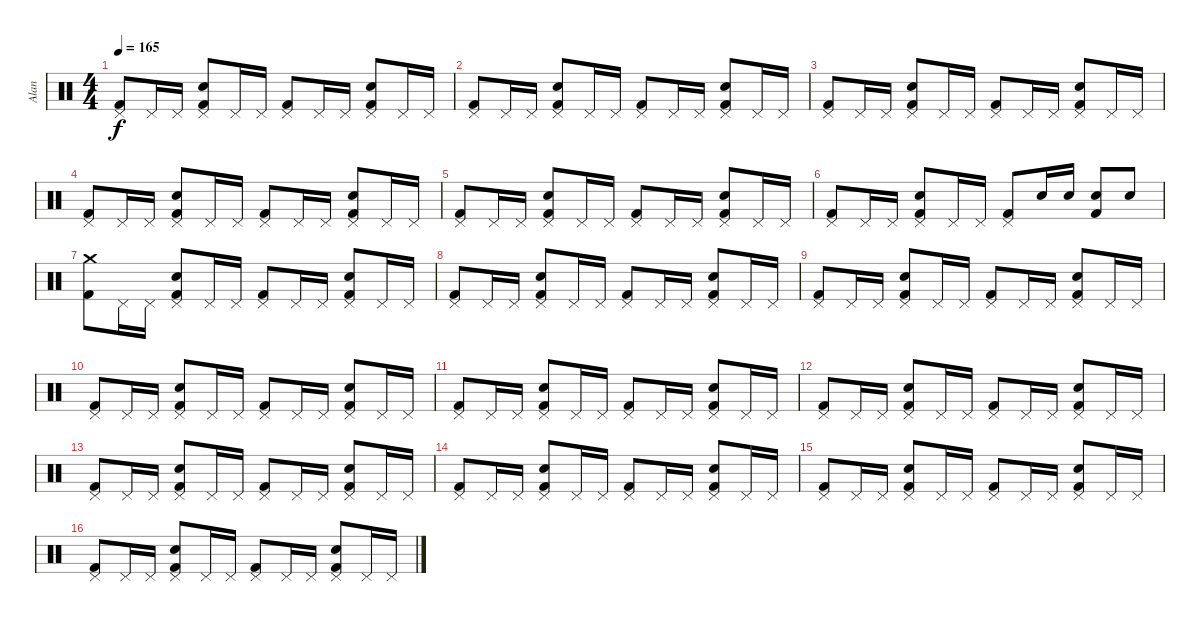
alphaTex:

\track ("Alan" "Alan") {instrument percussion}
\staff {score}
\articulation defaults
\ts (4 4)
\tempo 165
\clef neutral
\ks c
("Kick (hit) 2" "Pedal Hi-Hat (hit)").8{dy f} "Pedal Hi-Hat (hit)".16 "Pedal Hi-Hat (hit)".16 ("Pedal Hi-Hat (hit)" "Kick (hit) 2" "Snare (hit) 2").8 "Pedal Hi-Hat (hit)".16 "Pedal Hi-Hat (hit)".16 ("Pedal Hi-Hat (hit)" "Kick (hit) 2").8 "Pedal Hi-Hat (hit)".16 "Pedal Hi-Hat (hit)".16 ("Pedal Hi-Hat (hit)" "Kick (hit) 2" "Snare (hit) 2").8 "Pedal Hi-Hat (hit)".16 "Pedal Hi-Hat (hit)".16 |
("Kick (hit) 2" "Pedal Hi-Hat (hit)").8 "Pedal Hi-Hat (hit)".16 "Pedal Hi-Hat (hit)".16 ("Pedal Hi-Hat (hit)" "Kick (hit) 2" "Snare (hit) 2").8 "Pedal Hi-Hat (hit)".16 "Pedal Hi-Hat (hit)".16 ("Pedal Hi-Hat (hit)" "Kick (hit) 2").8 "Pedal Hi-Hat (hit)".16 "Pedal Hi-Hat (hit)".16 ("Pedal Hi-Hat (hit)" "Kick (hit) 2" "Snare (hit) 2").8 "Pedal Hi-Hat (hit)".16 "Pedal Hi-Hat (hit)".16 |
("Kick (hit) 2" "Pedal Hi-Hat (hit)").8 "Pedal Hi-Hat (hit)".16 "Pedal Hi-Hat (hit)".16 ("Pedal Hi-Hat (hit)" "Kick (hit) 2" "Snare (hit) 2").8 "Pedal Hi-Hat (hit)".16 "Pedal Hi-Hat (hit)".16 ("Pedal Hi-Hat (hit)" "Kick (hit) 2").8 "Pedal Hi-Hat (hit)".16 "Pedal Hi-Hat (hit)".16 ("Pedal Hi-Hat (hit)" "Kick (hit) 2" "Snare (hit) 2").8 "Pedal Hi-Hat (hit)".16 "Pedal Hi-Hat (hit)".16 |
("Kick (hit) 2" "Pedal Hi-Hat (hit)").8 "Pedal Hi-Hat (hit)".16 "Pedal Hi-Hat (hit)".16 ("Pedal Hi-Hat (hit)" "Kick (hit) 2" "Snare (hit) 2").8 "Pedal Hi-Hat (hit)".16 "Pedal Hi-Hat (hit)".16 ("Pedal Hi-Hat (hit)" "Kick (hit) 2").8 "Pedal Hi-Hat (hit)".16 "Pedal Hi-Hat (hit)".16 ("Pedal Hi-Hat (hit)" "Kick (hit) 2" "Snare (hit) 2").8 "Pedal Hi-Hat (hit)".16 "Pedal Hi-Hat (hit)".16 |
("Kick (hit) 2" "Pedal Hi-Hat (hit)").8 "Pedal Hi-Hat (hit)".16 "Pedal Hi-Hat (hit)".16 ("Pedal Hi-Hat (hit)" "Kick (hit) 2" "Snare (hit) 2").8 "Pedal Hi-Hat (hit)".16 "Pedal Hi-Hat (hit)".16 ("Pedal Hi-Hat (hit)" "Kick (hit) 2").8 "Pedal Hi-Hat (hit)".16 "Pedal Hi-Hat (hit)".16 ("Pedal Hi-Hat (hit)" "Kick (hit) 2" "Snare (hit) 2").8 "Pedal Hi-Hat (hit)".16 "Pedal Hi-Hat (hit)".16 |
("Kick (hit) 2" "Pedal Hi-Hat (hit)").8 "Pedal Hi-Hat (hit)".16 "Pedal Hi-Hat (hit)".16 ("Pedal Hi-Hat (hit)" "Kick (hit) 2" "Snare (hit) 2").8 "Pedal Hi-Hat (hit)".16 "Pedal Hi-Hat (hit)".16 ("Pedal Hi-Hat (hit)" "Kick (hit) 2").8 "Snare (hit) 2".16 "Snare (hit) 2".16 ("Snare (hit) 2" "Kick (hit) 2").8 "Snare (hit) 2".8 |
("Kick (hit) 2" "Crash medium (hit)").8 "Pedal Hi-Hat (hit)".16 "Pedal Hi-Hat (hit)".16 ("Pedal Hi-Hat (hit)" "Kick (hit) 2" "Snare (hit) 2").8 "Pedal Hi-Hat (hit)".16 "Pedal Hi-Hat (hit)".16 ("Pedal Hi-Hat (hit)" "Kick (hit) 2").8 "Pedal Hi-Hat (hit)".16 "Pedal Hi-Hat (hit)".16 ("Pedal Hi-Hat (hit)" "Kick (hit) 2" "Snare (hit) 2").8 "Pedal Hi-Hat (hit)".16 "Pedal Hi-Hat (hit)".16 |
("Kick (hit) 2" "Pedal Hi-Hat (hit)").8 "Pedal Hi-Hat (hit)".16 "Pedal Hi-Hat (hit)".16 ("Pedal Hi-Hat (hit)" "Kick (hit) 2" "Snare (hit) 2").8 "Pedal Hi-Hat (hit)".16 "Pedal Hi-Hat (hit)".16 ("Pedal Hi-Hat (hit)" "Kick (hit) 2").8 "Pedal Hi-Hat (hit)".16 "Pedal Hi-Hat (hit)".16 ("Pedal Hi-Hat (hit)" "Kick (hit) 2" "Snare (hit) 2").8 "Pedal Hi-Hat (hit)".16 "Pedal Hi-Hat (hit)".16 |
("Kick (hit) 2" "Pedal Hi-Hat (hit)").8 "Pedal Hi-Hat (hit)".16 "Pedal Hi-Hat (hit)".16 ("Pedal Hi-Hat (hit)" "Kick (hit) 2" "Snare (hit) 2").8 "Pedal Hi-Hat (hit)".16 "Pedal Hi-Hat (hit)".16 ("Pedal Hi-Hat (hit)" "Kick (hit) 2").8 "Pedal Hi-Hat (hit)".16 "Pedal Hi-Hat (hit)".16 ("Pedal Hi-Hat (hit)" "Kick (hit) 2" "Snare (hit) 2").8 "Pedal Hi-Hat (hit)".16 "Pedal Hi-Hat (hit)".16 |
("Kick (hit) 2" "Pedal Hi-Hat (hit)").8 "Pedal Hi-Hat (hit)".16 "Pedal Hi-Hat (hit)".16 ("Pedal Hi-Hat (hit)" "Kick (hit) 2" "Snare (hit) 2").8 "Pedal Hi-Hat (hit)".16 "Pedal Hi-Hat (hit)".16 ("Pedal Hi-Hat (hit)" "Kick (hit) 2").8 "Pedal Hi-Hat (hit)".16 "Pedal Hi-Hat (hit)".16 ("Pedal Hi-Hat (hit)" "Kick (hit) 2" "Snare (hit) 2").8 "Pedal Hi-Hat (hit)".16 "Pedal Hi-Hat (hit)".16 |
("Kick (hit) 2" "Pedal Hi-Hat (hit)").8 "Pedal Hi-Hat (hit)".16 "Pedal Hi-Hat (hit)".16 ("Pedal Hi-Hat (hit)" "Kick (hit) 2" "Snare (hit) 2").8 "Pedal Hi-Hat (hit)".16 "Pedal Hi-Hat (hit)".16 ("Pedal Hi-Hat (hit)" "Kick (hit) 2").8 "Pedal Hi-Hat (hit)".16 "Pedal Hi-Hat (hit)".16 ("Pedal Hi-Hat (hit)" "Kick (hit) 2" "Snare (hit) 2").8 "Pedal Hi-Hat (hit)".16 "Pedal Hi-Hat (hit)".16 |
("Kick (hit) 2" "Pedal Hi-Hat (hit)").8 "Pedal Hi-Hat (hit)".16 "Pedal Hi-Hat (hit)".16 ("Pedal Hi-Hat (hit)" "Kick (hit) 2" "Snare (hit) 2").8 "Pedal Hi-Hat (hit)".16 "Pedal Hi-Hat (hit)".16 ("Pedal Hi-Hat (hit)" "Kick (hit) 2").8 "Pedal Hi-Hat (hit)".16 "Pedal Hi-Hat (hit)".16 ("Pedal Hi-Hat (hit)" "Kick (hit) 2" "Snare (hit) 2").8 "Pedal Hi-Hat (hit)".16 "Pedal Hi-Hat (hit)".16 |
("Kick (hit) 2" "Pedal Hi-Hat (hit)").8 "Pedal Hi-Hat (hit)".16 "Pedal Hi-Hat (hit)".16 ("Pedal Hi-Hat (hit)" "Kick (hit) 2" "Snare (hit) 2").8 "Pedal Hi-Hat (hit)".16 "Pedal Hi-Hat (hit)".16 ("Pedal Hi-Hat (hit)" "Kick (hit) 2").8 "Pedal Hi-Hat (hit)".16 "Pedal Hi-Hat (hit)".16 ("Pedal Hi-Hat (hit)" "Kick (hit) 2" "Snare (hit) 2").8 "Pedal Hi-Hat (hit)".16 "Pedal Hi-Hat (hit)".16 |
("Kick (hit) 2" "Pedal Hi-Hat (hit)").8 "Pedal Hi-Hat (hit)".16 "Pedal Hi-Hat (hit)".16 ("Pedal Hi-Hat (hit)" "Kick (hit) 2" "Snare (hit) 2").8 "Pedal Hi-Hat (hit)".16 "Pedal Hi-Hat (hit)".16 ("Pedal Hi-Hat (hit)" "Kick (hit) 2").8 "Pedal Hi-Hat (hit)".16 "Pedal Hi-Hat (hit)".16 ("Pedal Hi-Hat (hit)" "Kick (hit) 2" "Snare (hit) 2").8 "Pedal Hi-Hat (hit)".16 "Pedal Hi-Hat (hit)".16 |
("Kick (hit) 2" "Pedal Hi-Hat (hit)").8 "Pedal Hi-Hat (hit)".16 "Pedal Hi-Hat (hit)".16 ("Pedal Hi-Hat (hit)" "Kick (hit) 2" "Snare (hit) 2").8 "Pedal Hi-Hat (hit)".16 "Pedal Hi-Hat (hit)".16 ("Pedal Hi-Hat (hit)" "Kick (hit) 2").8 "Pedal Hi-Hat (hit)".16 "Pedal Hi-Hat (hit)".16 ("Pedal Hi-Hat (hit)" "Kick (hit) 2" "Snare (hit) 2").8 "Pedal Hi-Hat (hit)".16 "Pedal Hi-Hat (hit)".16 |
("Kick (hit) 2" "Pedal Hi-Hat (hit)").8 "Pedal Hi-Hat (hit)".16 "Pedal Hi-Hat (hit)".16 ("Pedal Hi-Hat (hit)" "Kick (hit) 2" "Snare (hit) 2").8 "Pedal Hi-Hat (hit)".16 "Pedal Hi-Hat (hit)".16 ("Pedal Hi-Hat (hit)" "Kick (hit) 2").8 "Pedal Hi-Hat (hit)".16 "Pedal Hi-Hat (hit)".16 ("Pedal Hi-Hat (hit)" "Kick (hit) 2" "Snare (hit) 2").8 "Pedal Hi-Hat (hit)".16 "Pedal Hi-Hat (hit)".16
